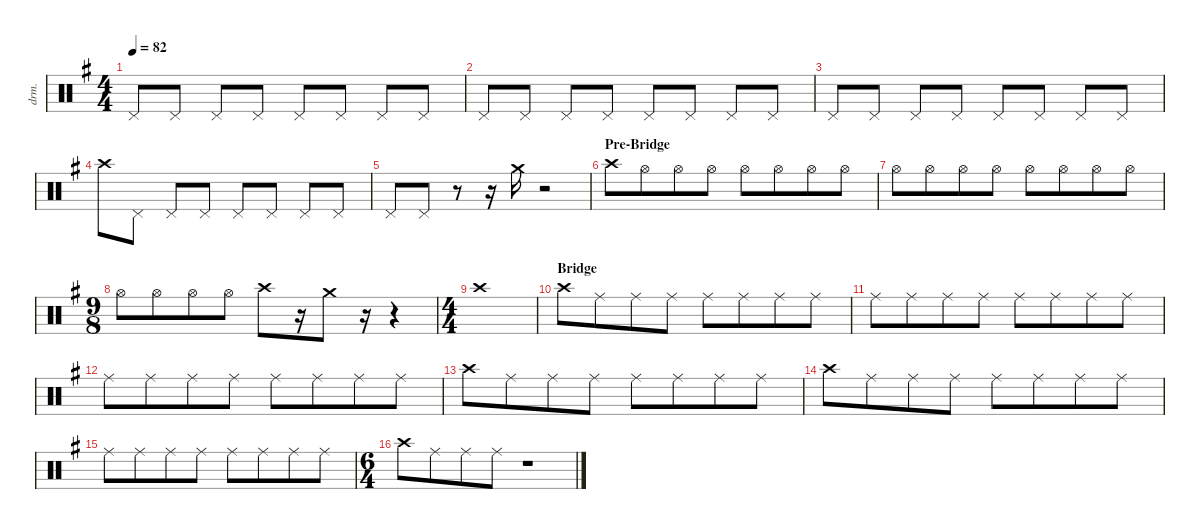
\defaultSystemsLayout 2
\hideDynamics
\bracketExtendMode nobrackets
\otherSystemsTrackNameOrientation horizontal
\track ("Drums (Cymbals)" "drm.") {instrument percussion}
\staff {score}
\articulation defaults
\ts (4 4)
\tempo 82
\clef neutral
\ks g "Pedal Hi-Hat (hit)".8{dy f} "Pedal Hi-Hat (hit)".8 "Pedal Hi-Hat (hit)".8 "Pedal Hi-Hat (hit)".8 "Pedal Hi-Hat (hit)".8 "Pedal Hi-Hat (hit)".8 "Pedal Hi-Hat (hit)".8 "Pedal Hi-Hat (hit)".8
|
"Pedal Hi-Hat (hit)".8 "Pedal Hi-Hat (hit)".8 "Pedal Hi-Hat (hit)".8 "Pedal Hi-Hat (hit)".8 "Pedal Hi-Hat (hit)".8 "Pedal Hi-Hat (hit)".8 "Pedal Hi-Hat (hit)".8 "Pedal Hi-Hat (hit)".8 |
"Pedal Hi-Hat (hit)".8 "Pedal Hi-Hat (hit)".8 "Pedal Hi-Hat (hit)".8 "Pedal Hi-Hat (hit)".8 "Pedal Hi-Hat (hit)".8 "Pedal Hi-Hat (hit)".8 "Pedal Hi-Hat (hit)".8 "Pedal Hi-Hat (hit)".8 |
"Crash high (hit)".8 "Pedal Hi-Hat (hit)".8 "Pedal Hi-Hat (hit)".8 "Pedal Hi-Hat (hit)".8 "Pedal Hi-Hat (hit)".8 "Pedal Hi-Hat (hit)".8 "Pedal Hi-Hat (hit)".8 "Pedal Hi-Hat (hit)".8 |
"Pedal Hi-Hat (hit)".8 "Pedal Hi-Hat (hit)".8 r.8 r.16 "Crash medium (hit)".16 r.2 |
\beaming (8 4 4)
\section ("" "Pre-Bridge")
"Crash high (hit)".8 "Hi-Hat (open)".8 "Hi-Hat (open)".8 "Hi-Hat (open)".8 "Hi-Hat (open)".8 "Hi-Hat (open)".8 "Hi-Hat (open)".8 "Hi-Hat (open)".8 |
"Hi-Hat (open)".8 "Hi-Hat (open)".8 "Hi-Hat (open)".8 "Hi-Hat (open)".8 "Hi-Hat (open)".8 "Hi-Hat (open)".8 "Hi-Hat (open)".8 "Hi-Hat (open)".8 |
\ts (9 8)
\beaming (8 4 5)
"Hi-Hat (open)".8 "Hi-Hat (open)".8 "Hi-Hat (open)".8 "Hi-Hat (open)".8 "Crash high (hit)".8 r.16 "Crash medium (hit)".8 r.16 r.4 |
\ts (4 4)
\beaming (8 4 4)
"Crash high (hit)".1 |
\section ("" "Bridge")
"Crash high (hit)".8 "Ride (middle)".8 "Ride (middle)".8 "Ride (middle)".8 "Ride (middle)".8 "Ride (middle)".8 "Ride (middle)".8 "Ride (middle)".8 |
"Ride (middle)".8 "Ride (middle)".8 "Ride (middle)".8 "Ride (middle)".8 "Ride (middle)".8 "Ride (middle)".8 "Ride (middle)".8 "Ride (middle)".8 |
"Ride (middle)".8 "Ride (middle)".8 "Ride (middle)".8 "Ride (middle)".8 "Ride (middle)".8 "Ride (middle)".8 "Ride (middle)".8 "Ride (middle)".8 |
"Crash high (hit)".8 "Ride (middle)".8 "Ride (middle)".8 "Ride (middle)".8 "Ride (middle)".8 "Ride (middle)".8 "Ride (middle)".8 "Ride (middle)".8 |
"Crash high (hit)".8 "Ride (middle)".8 "Ride (middle)".8 "Ride (middle)".8 "Ride (middle)".8 "Ride (middle)".8 "Ride (middle)".8 "Ride (middle)".8 |
"Ride (middle)".8 "Ride (middle)".8 "Ride (middle)".8 "Ride (middle)".8 "Ride (middle)".8 "Ride (middle)".8 "Ride (middle)".8 "Ride (middle)".8 |
\ts (6 4)
\beaming (8 4 4 4)
"Crash high (hit)".8 "Ride (middle)".8 "Ride (middle)".8 "Ride (middle)".8 r.1
